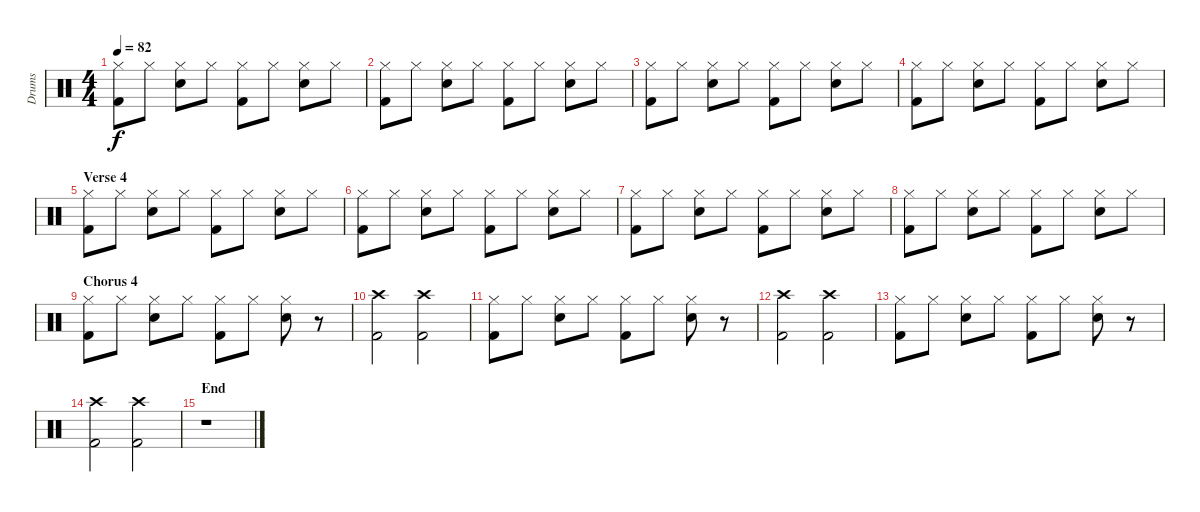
\track ("Drums" "Drums") {instrument percussion}
\staff {score}
\articulation defaults
\ts (4 4)
\tempo 82
\clef neutral
\ks c
("Hi-Hat (closed)" "Kick (hit) 2").8{dy f} "Hi-Hat (closed)".8 ("Hi-Hat (closed)" "Snare (hit) 2").8 "Hi-Hat (closed)".8 ("Hi-Hat (closed)" "Kick (hit) 2").8 "Hi-Hat (closed)".8 ("Hi-Hat (closed)" "Snare (hit) 2").8 "Hi-Hat (closed)".8 |
("Hi-Hat (closed)" "Kick (hit) 2").8 "Hi-Hat (closed)".8 ("Hi-Hat (closed)" "Snare (hit) 2").8 "Hi-Hat (closed)".8 ("Hi-Hat (closed)" "Kick (hit) 2").8 "Hi-Hat (closed)".8 ("Hi-Hat (closed)" "Snare (hit) 2").8 "Hi-Hat (closed)".8 |
("Hi-Hat (closed)" "Kick (hit) 2").8 "Hi-Hat (closed)".8 ("Hi-Hat (closed)" "Snare (hit) 2").8 "Hi-Hat (closed)".8 ("Hi-Hat (closed)" "Kick (hit) 2").8 "Hi-Hat (closed)".8 ("Hi-Hat (closed)" "Snare (hit) 2").8 "Hi-Hat (closed)".8 |
("Hi-Hat (closed)" "Kick (hit) 2").8 "Hi-Hat (closed)".8 ("Hi-Hat (closed)" "Snare (hit) 2").8 "Hi-Hat (closed)".8 ("Hi-Hat (closed)" "Kick (hit) 2").8 "Hi-Hat (closed)".8 ("Hi-Hat (closed)" "Snare (hit) 2").8 "Hi-Hat (closed)".8 |
\section ("" "Verse 4")
("Hi-Hat (closed)" "Kick (hit) 2").8 "Hi-Hat (closed)".8 ("Hi-Hat (closed)" "Snare (hit) 2").8 "Hi-Hat (closed)".8 ("Hi-Hat (closed)" "Kick (hit) 2").8 "Hi-Hat (closed)".8 ("Hi-Hat (closed)" "Snare (hit) 2").8 "Hi-Hat (closed)".8 |
("Hi-Hat (closed)" "Kick (hit) 2").8 "Hi-Hat (closed)".8 ("Hi-Hat (closed)" "Snare (hit) 2").8 "Hi-Hat (closed)".8 ("Hi-Hat (closed)" "Kick (hit) 2").8 "Hi-Hat (closed)".8 ("Hi-Hat (closed)" "Snare (hit) 2").8 "Hi-Hat (closed)".8 |
("Hi-Hat (closed)" "Kick (hit) 2").8 "Hi-Hat (closed)".8 ("Hi-Hat (closed)" "Snare (hit) 2").8 "Hi-Hat (closed)".8 ("Hi-Hat (closed)" "Kick (hit) 2").8 "Hi-Hat (closed)".8 ("Hi-Hat (closed)" "Snare (hit) 2").8 "Hi-Hat (closed)".8 |
("Hi-Hat (closed)" "Kick (hit) 2").8 "Hi-Hat (closed)".8 ("Hi-Hat (closed)" "Snare (hit) 2").8 "Hi-Hat (closed)".8 ("Hi-Hat (closed)" "Kick (hit) 2").8 "Hi-Hat (closed)".8 ("Hi-Hat (closed)" "Snare (hit) 2").8 "Hi-Hat (closed)".8 |
\section ("" "Chorus 4")
("Hi-Hat (closed)" "Kick (hit) 2").8 "Hi-Hat (closed)".8 ("Hi-Hat (closed)" "Snare (hit) 2").8 "Hi-Hat (closed)".8 ("Hi-Hat (closed)" "Kick (hit) 2").8 "Hi-Hat (closed)".8 ("Hi-Hat (closed)" "Snare (hit) 2").8 r.8 |
("Kick (hit) 2" "Crash high (hit)").2 ("Kick (hit) 2" "Crash high (hit)").2 |
("Hi-Hat (closed)" "Kick (hit) 2").8 "Hi-Hat (closed)".8 ("Hi-Hat (closed)" "Snare (hit) 2").8 "Hi-Hat (closed)".8 ("Hi-Hat (closed)" "Kick (hit) 2").8 "Hi-Hat (closed)".8 ("Hi-Hat (closed)" "Snare (hit) 2").8 r.8 |
("Kick (hit) 2" "Crash high (hit)").2 ("Kick (hit) 2" "Crash high (hit)").2 |
("Hi-Hat (closed)" "Kick (hit) 2").8 "Hi-Hat (closed)".8 ("Hi-Hat (closed)" "Snare (hit) 2").8 "Hi-Hat (closed)".8 ("Hi-Hat (closed)" "Kick (hit) 2").8 "Hi-Hat (closed)".8 ("Hi-Hat (closed)" "Snare (hit) 2").8 r.8 |
("Kick (hit) 2" "Crash high (hit)").2 ("Kick (hit) 2" "Crash high (hit)").2 |
\section ("" "End")
r.1
